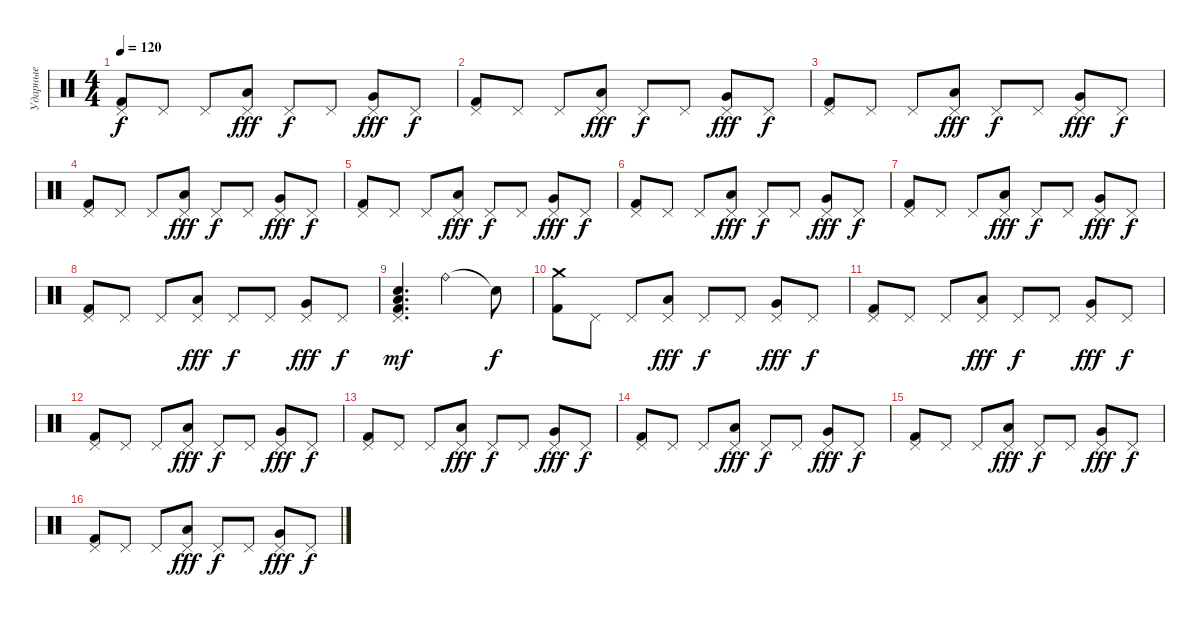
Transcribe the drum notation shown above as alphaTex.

\track ("Ударные" "Ударные") {instrument percussion}
\staff {score}
\articulation defaults
\ts (4 4)
\tempo 120
\clef neutral
\ks c
("Pedal Hi-Hat (hit)" "Kick (hit) 2").8{dy f} "Pedal Hi-Hat (hit)".8 "Pedal Hi-Hat (hit)".8 ("Pedal Hi-Hat (hit)" "Low Floor Tom (hit)").8{dy fff} "Pedal Hi-Hat (hit)".8{dy f} "Pedal Hi-Hat (hit)".8 ("Pedal Hi-Hat (hit)" "Very Low Tom (hit)").8{dy fff} "Pedal Hi-Hat (hit)".8{dy f} |
("Pedal Hi-Hat (hit)" "Kick (hit) 2").8 "Pedal Hi-Hat (hit)".8 "Pedal Hi-Hat (hit)".8 ("Pedal Hi-Hat (hit)" "Low Floor Tom (hit)").8{dy fff} "Pedal Hi-Hat (hit)".8{dy f} "Pedal Hi-Hat (hit)".8 ("Pedal Hi-Hat (hit)" "Very Low Tom (hit)").8{dy fff} "Pedal Hi-Hat (hit)".8{dy f} |
("Pedal Hi-Hat (hit)" "Kick (hit) 2").8 "Pedal Hi-Hat (hit)".8 "Pedal Hi-Hat (hit)".8 ("Pedal Hi-Hat (hit)" "Low Floor Tom (hit)").8{dy fff} "Pedal Hi-Hat (hit)".8{dy f} "Pedal Hi-Hat (hit)".8 ("Pedal Hi-Hat (hit)" "Very Low Tom (hit)").8{dy fff} "Pedal Hi-Hat (hit)".8{dy f} |
("Pedal Hi-Hat (hit)" "Kick (hit) 2").8 "Pedal Hi-Hat (hit)".8 "Pedal Hi-Hat (hit)".8 ("Pedal Hi-Hat (hit)" "Low Floor Tom (hit)").8{dy fff} "Pedal Hi-Hat (hit)".8{dy f} "Pedal Hi-Hat (hit)".8 ("Pedal Hi-Hat (hit)" "Very Low Tom (hit)").8{dy fff} "Pedal Hi-Hat (hit)".8{dy f} |
("Pedal Hi-Hat (hit)" "Kick (hit) 2").8 "Pedal Hi-Hat (hit)".8 "Pedal Hi-Hat (hit)".8 ("Pedal Hi-Hat (hit)" "Low Floor Tom (hit)").8{dy fff} "Pedal Hi-Hat (hit)".8{dy f} "Pedal Hi-Hat (hit)".8 ("Pedal Hi-Hat (hit)" "Very Low Tom (hit)").8{dy fff} "Pedal Hi-Hat (hit)".8{dy f} |
("Pedal Hi-Hat (hit)" "Kick (hit) 2").8 "Pedal Hi-Hat (hit)".8 "Pedal Hi-Hat (hit)".8 ("Pedal Hi-Hat (hit)" "Low Floor Tom (hit)").8{dy fff} "Pedal Hi-Hat (hit)".8{dy f} "Pedal Hi-Hat (hit)".8 ("Pedal Hi-Hat (hit)" "Very Low Tom (hit)").8{dy fff} "Pedal Hi-Hat (hit)".8{dy f} |
("Pedal Hi-Hat (hit)" "Kick (hit) 2").8 "Pedal Hi-Hat (hit)".8 "Pedal Hi-Hat (hit)".8 ("Pedal Hi-Hat (hit)" "Low Floor Tom (hit)").8{dy fff} "Pedal Hi-Hat (hit)".8{dy f} "Pedal Hi-Hat (hit)".8 ("Pedal Hi-Hat (hit)" "Very Low Tom (hit)").8{dy fff} "Pedal Hi-Hat (hit)".8{dy f} |
("Pedal Hi-Hat (hit)" "Kick (hit) 2").8 "Pedal Hi-Hat (hit)".8 "Pedal Hi-Hat (hit)".8 ("Pedal Hi-Hat (hit)" "Low Floor Tom (hit)").8{dy fff} "Pedal Hi-Hat (hit)".8{dy f} "Pedal Hi-Hat (hit)".8 ("Pedal Hi-Hat (hit)" "Very Low Tom (hit)").8{dy fff} "Pedal Hi-Hat (hit)".8{dy f} |
("Metronome (bell)" "Pedal Hi-Hat (hit)" "Low Floor Tom (hit)" "Kick (hit) 2").4{d dy mf} "Ride (bell)".2 "Snare (hit)"{t}.8{dy f} |
("Crash medium (hit)" "Kick (hit) 2").8 "Pedal Hi-Hat (hit)".8 "Pedal Hi-Hat (hit)".8 ("Pedal Hi-Hat (hit)" "Low Floor Tom (hit)").8{dy fff} "Pedal Hi-Hat (hit)".8{dy f} "Pedal Hi-Hat (hit)".8 ("Pedal Hi-Hat (hit)" "Very Low Tom (hit)").8{dy fff} "Pedal Hi-Hat (hit)".8{dy f} |
("Pedal Hi-Hat (hit)" "Kick (hit) 2").8 "Pedal Hi-Hat (hit)".8 "Pedal Hi-Hat (hit)".8 ("Pedal Hi-Hat (hit)" "Low Floor Tom (hit)").8{dy fff} "Pedal Hi-Hat (hit)".8{dy f} "Pedal Hi-Hat (hit)".8 ("Pedal Hi-Hat (hit)" "Very Low Tom (hit)").8{dy fff} "Pedal Hi-Hat (hit)".8{dy f} |
("Pedal Hi-Hat (hit)" "Kick (hit) 2").8 "Pedal Hi-Hat (hit)".8 "Pedal Hi-Hat (hit)".8 ("Pedal Hi-Hat (hit)" "Low Floor Tom (hit)").8{dy fff} "Pedal Hi-Hat (hit)".8{dy f} "Pedal Hi-Hat (hit)".8 ("Pedal Hi-Hat (hit)" "Very Low Tom (hit)").8{dy fff} "Pedal Hi-Hat (hit)".8{dy f} |
("Pedal Hi-Hat (hit)" "Kick (hit) 2").8 "Pedal Hi-Hat (hit)".8 "Pedal Hi-Hat (hit)".8 ("Pedal Hi-Hat (hit)" "Low Floor Tom (hit)").8{dy fff} "Pedal Hi-Hat (hit)".8{dy f} "Pedal Hi-Hat (hit)".8 ("Pedal Hi-Hat (hit)" "Very Low Tom (hit)").8{dy fff} "Pedal Hi-Hat (hit)".8{dy f} |
("Pedal Hi-Hat (hit)" "Kick (hit) 2").8 "Pedal Hi-Hat (hit)".8 "Pedal Hi-Hat (hit)".8 ("Pedal Hi-Hat (hit)" "Low Floor Tom (hit)").8{dy fff} "Pedal Hi-Hat (hit)".8{dy f} "Pedal Hi-Hat (hit)".8 ("Pedal Hi-Hat (hit)" "Very Low Tom (hit)").8{dy fff} "Pedal Hi-Hat (hit)".8{dy f} |
("Pedal Hi-Hat (hit)" "Kick (hit) 2").8 "Pedal Hi-Hat (hit)".8 "Pedal Hi-Hat (hit)".8 ("Pedal Hi-Hat (hit)" "Low Floor Tom (hit)").8{dy fff} "Pedal Hi-Hat (hit)".8{dy f} "Pedal Hi-Hat (hit)".8 ("Pedal Hi-Hat (hit)" "Very Low Tom (hit)").8{dy fff} "Pedal Hi-Hat (hit)".8{dy f} |
("Pedal Hi-Hat (hit)" "Kick (hit) 2").8 "Pedal Hi-Hat (hit)".8 "Pedal Hi-Hat (hit)".8 ("Pedal Hi-Hat (hit)" "Low Floor Tom (hit)").8{dy fff} "Pedal Hi-Hat (hit)".8{dy f} "Pedal Hi-Hat (hit)".8 ("Pedal Hi-Hat (hit)" "Very Low Tom (hit)").8{dy fff} "Pedal Hi-Hat (hit)".8{dy f}
